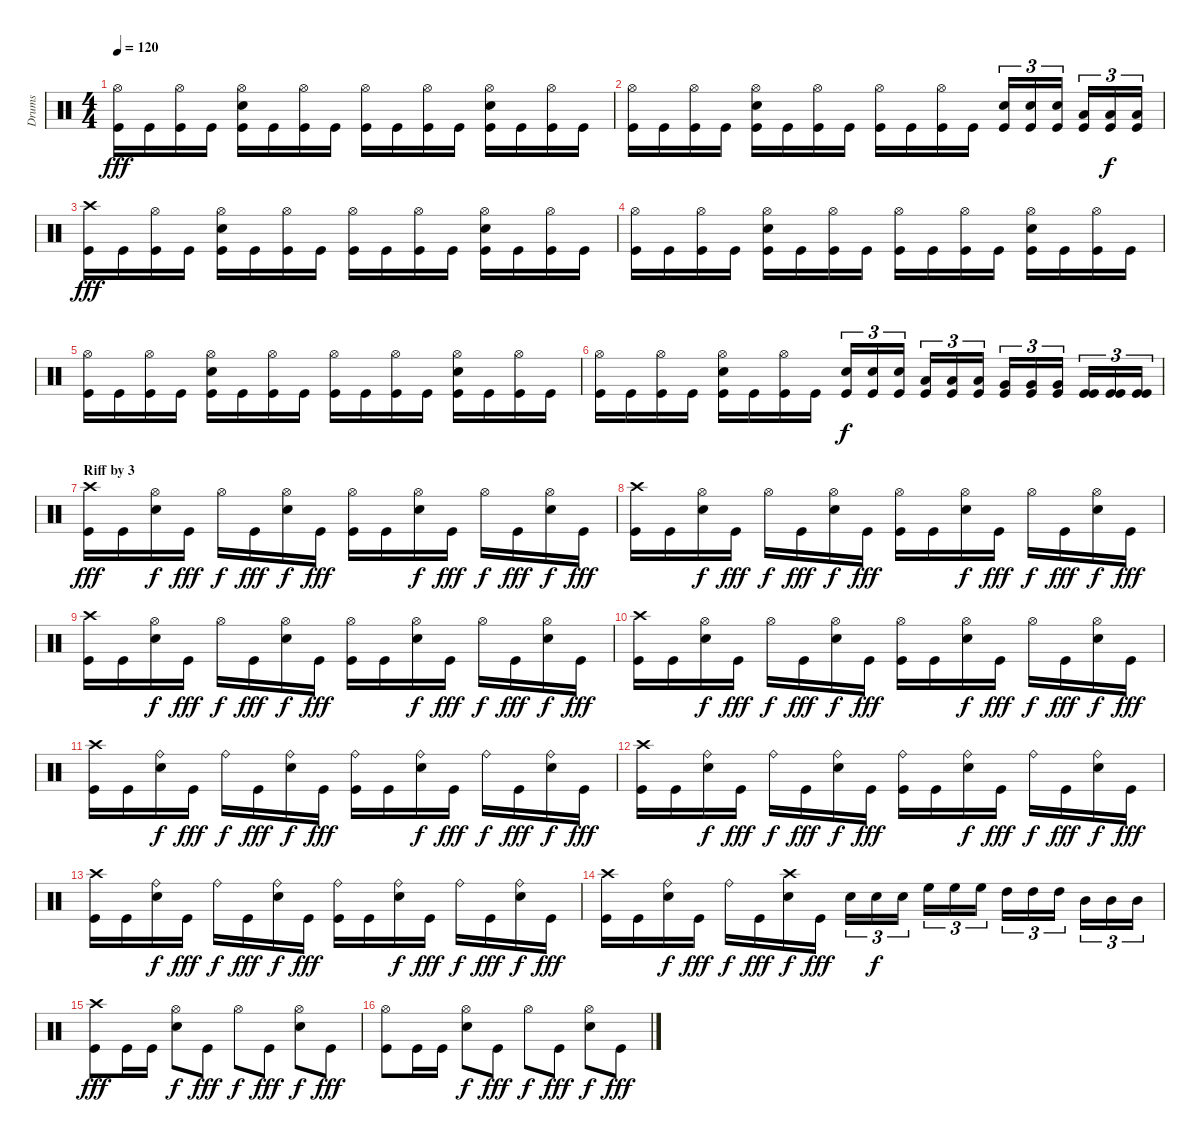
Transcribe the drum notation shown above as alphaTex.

\track ("Drums" "Drums") {instrument percussion}
\staff {score}
\articulation defaults
\ts (4 4)
\tempo 120
\clef neutral
\ks c
("Hi-Hat (open)" "Kick (hit)").16{dy fff} "Kick (hit)".16 ("Hi-Hat (open)" "Kick (hit)").16 "Kick (hit)".16 ("Hi-Hat (open)" "Electric Snare (hit)" "Kick (hit)").16 "Kick (hit)".16 ("Hi-Hat (open)" "Kick (hit)").16 "Kick (hit)".16 ("Hi-Hat (open)" "Kick (hit)").16 "Kick (hit)".16 ("Hi-Hat (open)" "Kick (hit)").16 "Kick (hit)".16 ("Hi-Hat (open)" "Electric Snare (hit)" "Kick (hit)").16 "Kick (hit)".16 ("Hi-Hat (open)" "Kick (hit)").16 "Kick (hit)".16 |
("Hi-Hat (open)" "Kick (hit)").16 "Kick (hit)".16 ("Hi-Hat (open)" "Kick (hit)").16 "Kick (hit)".16 ("Hi-Hat (open)" "Electric Snare (hit)" "Kick (hit)").16 "Kick (hit)".16 ("Hi-Hat (open)" "Kick (hit)").16 "Kick (hit)".16 ("Hi-Hat (open)" "Kick (hit)").16 "Kick (hit)".16 ("Hi-Hat (open)" "Kick (hit)").16 "Kick (hit)".16 ("Electric Snare (hit)" "Kick (hit)").16{tu (3 2)} ("Electric Snare (hit)" "Kick (hit)").16{tu (3 2)} ("Electric Snare (hit)" "Kick (hit)").16{tu (3 2)} ("Low Tom (hit)" "Kick (hit)").16{tu (3 2)} ("Low Tom (hit)" "Kick (hit)").16{tu (3 2) dy f} ("Low Tom (hit)" "Kick (hit)").16{tu (3 2)} |
("Crash high (hit)" "Kick (hit)").16{dy fff} "Kick (hit)".16 ("Hi-Hat (open)" "Kick (hit)").16 "Kick (hit)".16 ("Hi-Hat (open)" "Electric Snare (hit)" "Kick (hit)").16 "Kick (hit)".16 ("Hi-Hat (open)" "Kick (hit)").16 "Kick (hit)".16 ("Hi-Hat (open)" "Kick (hit)").16 "Kick (hit)".16 ("Hi-Hat (open)" "Kick (hit)").16 "Kick (hit)".16 ("Hi-Hat (open)" "Electric Snare (hit)" "Kick (hit)").16 "Kick (hit)".16 ("Hi-Hat (open)" "Kick (hit)").16 "Kick (hit)".16 |
("Hi-Hat (open)" "Kick (hit)").16 "Kick (hit)".16 ("Hi-Hat (open)" "Kick (hit)").16 "Kick (hit)".16 ("Hi-Hat (open)" "Electric Snare (hit)" "Kick (hit)").16 "Kick (hit)".16 ("Hi-Hat (open)" "Kick (hit)").16 "Kick (hit)".16 ("Hi-Hat (open)" "Kick (hit)").16 "Kick (hit)".16 ("Hi-Hat (open)" "Kick (hit)").16 "Kick (hit)".16 ("Hi-Hat (open)" "Electric Snare (hit)" "Kick (hit)").16 "Kick (hit)".16 ("Hi-Hat (open)" "Kick (hit)").16 "Kick (hit)".16 |
("Hi-Hat (open)" "Kick (hit)").16 "Kick (hit)".16 ("Hi-Hat (open)" "Kick (hit)").16 "Kick (hit)".16 ("Hi-Hat (open)" "Electric Snare (hit)" "Kick (hit)").16 "Kick (hit)".16 ("Hi-Hat (open)" "Kick (hit)").16 "Kick (hit)".16 ("Hi-Hat (open)" "Kick (hit)").16 "Kick (hit)".16 ("Hi-Hat (open)" "Kick (hit)").16 "Kick (hit)".16 ("Hi-Hat (open)" "Electric Snare (hit)" "Kick (hit)").16 "Kick (hit)".16 ("Hi-Hat (open)" "Kick (hit)").16 "Kick (hit)".16 |
("Hi-Hat (open)" "Kick (hit)").16 "Kick (hit)".16 ("Hi-Hat (open)" "Kick (hit)").16 "Kick (hit)".16 ("Hi-Hat (open)" "Electric Snare (hit)" "Kick (hit)").16 "Kick (hit)".16 ("Hi-Hat (open)" "Kick (hit)").16 "Kick (hit)".16 ("Electric Snare (hit)" "Kick (hit)").16{tu (3 2) dy f} ("Electric Snare (hit)" "Kick (hit)").16{tu (3 2)} ("Electric Snare (hit)" "Kick (hit)").16{tu (3 2)} ("Low Tom (hit)" "Kick (hit)").16{tu (3 2)} ("Low Tom (hit)" "Kick (hit)").16{tu (3 2)} ("Low Tom (hit)" "Kick (hit)").16{tu (3 2)} ("Very Low Tom (hit)" "Kick (hit)").16{tu (3 2)} ("Very Low Tom (hit)" "Kick (hit)").16{tu (3 2)} ("Very Low Tom (hit)" "Kick (hit)").16{tu (3 2)} ("Kick (hit)" "Kick (hit)").16{tu (3 2)} ("Kick (hit)" "Kick (hit)").16{tu (3 2)} ("Kick (hit)" "Kick (hit)").16{tu (3 2)} |
\section ("" "Riff by 3")
("Crash high (hit)" "Kick (hit)").16{dy fff} "Kick (hit)".16 ("Hi-Hat (open)" "Electric Snare (hit)").16{dy f} "Kick (hit)".16{dy fff} "Hi-Hat (open)".16{dy f} "Kick (hit)".16{dy fff} ("Hi-Hat (open)" "Electric Snare (hit)").16{dy f} "Kick (hit)".16{dy fff} ("Hi-Hat (open)" "Kick (hit)").16 "Kick (hit)".16 ("Hi-Hat (open)" "Electric Snare (hit)").16{dy f} "Kick (hit)".16{dy fff} "Hi-Hat (open)".16{dy f} "Kick (hit)".16{dy fff} ("Hi-Hat (open)" "Electric Snare (hit)").16{dy f} "Kick (hit)".16{dy fff} |
("Crash high (hit)" "Kick (hit)").16 "Kick (hit)".16 ("Hi-Hat (open)" "Electric Snare (hit)").16{dy f} "Kick (hit)".16{dy fff} "Hi-Hat (open)".16{dy f} "Kick (hit)".16{dy fff} ("Hi-Hat (open)" "Electric Snare (hit)").16{dy f} "Kick (hit)".16{dy fff} ("Hi-Hat (open)" "Kick (hit)").16 "Kick (hit)".16 ("Hi-Hat (open)" "Electric Snare (hit)").16{dy f} "Kick (hit)".16{dy fff} "Hi-Hat (open)".16{dy f} "Kick (hit)".16{dy fff} ("Hi-Hat (open)" "Electric Snare (hit)").16{dy f} "Kick (hit)".16{dy fff} |
("Crash high (hit)" "Kick (hit)").16 "Kick (hit)".16 ("Hi-Hat (open)" "Electric Snare (hit)").16{dy f} "Kick (hit)".16{dy fff} "Hi-Hat (open)".16{dy f} "Kick (hit)".16{dy fff} ("Hi-Hat (open)" "Electric Snare (hit)").16{dy f} "Kick (hit)".16{dy fff} ("Hi-Hat (open)" "Kick (hit)").16 "Kick (hit)".16 ("Hi-Hat (open)" "Electric Snare (hit)").16{dy f} "Kick (hit)".16{dy fff} "Hi-Hat (open)".16{dy f} "Kick (hit)".16{dy fff} ("Hi-Hat (open)" "Electric Snare (hit)").16{dy f} "Kick (hit)".16{dy fff} |
("Crash high (hit)" "Kick (hit)").16 "Kick (hit)".16 ("Hi-Hat (open)" "Electric Snare (hit)").16{dy f} "Kick (hit)".16{dy fff} "Hi-Hat (open)".16{dy f} "Kick (hit)".16{dy fff} ("Hi-Hat (open)" "Electric Snare (hit)").16{dy f} "Kick (hit)".16{dy fff} ("Hi-Hat (open)" "Kick (hit)").16 "Kick (hit)".16 ("Hi-Hat (open)" "Electric Snare (hit)").16{dy f} "Kick (hit)".16{dy fff} "Hi-Hat (open)".16{dy f} "Kick (hit)".16{dy fff} ("Hi-Hat (open)" "Electric Snare (hit)").16{dy f} "Kick (hit)".16{dy fff} |
("Crash high (hit)" "Kick (hit)").16 "Kick (hit)".16 ("Ride (bell)" "Electric Snare (hit)").16{dy f} "Kick (hit)".16{dy fff} "Ride (bell)".16{dy f} "Kick (hit)".16{dy fff} ("Ride (bell)" "Electric Snare (hit)").16{dy f} "Kick (hit)".16{dy fff} ("Ride (bell)" "Kick (hit)").16 "Kick (hit)".16 ("Ride (bell)" "Electric Snare (hit)").16{dy f} "Kick (hit)".16{dy fff} "Ride (bell)".16{dy f} "Kick (hit)".16{dy fff} ("Ride (bell)" "Electric Snare (hit)").16{dy f} "Kick (hit)".16{dy fff} |
("Crash high (hit)" "Kick (hit)").16 "Kick (hit)".16 ("Ride (bell)" "Electric Snare (hit)").16{dy f} "Kick (hit)".16{dy fff} "Ride (bell)".16{dy f} "Kick (hit)".16{dy fff} ("Ride (bell)" "Electric Snare (hit)").16{dy f} "Kick (hit)".16{dy fff} ("Ride (bell)" "Kick (hit)").16 "Kick (hit)".16 ("Ride (bell)" "Electric Snare (hit)").16{dy f} "Kick (hit)".16{dy fff} "Ride (bell)".16{dy f} "Kick (hit)".16{dy fff} ("Ride (bell)" "Electric Snare (hit)").16{dy f} "Kick (hit)".16{dy fff} |
("Crash high (hit)" "Kick (hit)").16 "Kick (hit)".16 ("Ride (bell)" "Electric Snare (hit)").16{dy f} "Kick (hit)".16{dy fff} "Ride (bell)".16{dy f} "Kick (hit)".16{dy fff} ("Ride (bell)" "Electric Snare (hit)").16{dy f} "Kick (hit)".16{dy fff} ("Ride (bell)" "Kick (hit)").16 "Kick (hit)".16 ("Ride (bell)" "Electric Snare (hit)").16{dy f} "Kick (hit)".16{dy fff} "Ride (bell)".16{dy f} "Kick (hit)".16{dy fff} ("Ride (bell)" "Electric Snare (hit)").16{dy f} "Kick (hit)".16{dy fff} |
("Crash high (hit)" "Kick (hit)").16 "Kick (hit)".16 ("Ride (bell)" "Electric Snare (hit)").16{dy f} "Kick (hit)".16{dy fff} "Ride (bell)".16{dy f} "Kick (hit)".16{dy fff} ("Crash high (hit)" "Electric Snare (hit)").16{dy f} "Kick (hit)".16{dy fff} "Electric Snare (hit)".16{tu (3 2)} "Electric Snare (hit)".16{tu (3 2) dy f} "Electric Snare (hit)".16{tu (3 2)} "High Floor Tom (hit)".16{tu (3 2)} "High Floor Tom (hit)".16{tu (3 2)} "High Floor Tom (hit)".16{tu (3 2)} "High Tom (hit)".16{tu (3 2)} "High Tom (hit)".16{tu (3 2)} "High Tom (hit)".16{tu (3 2)} "Mid Tom (hit)".16{tu (3 2)} "Mid Tom (hit)".16{tu (3 2)} "Mid Tom (hit)".16{tu (3 2)} |
("Crash high (hit)" "Kick (hit)").8{dy fff} "Kick (hit)".16 "Kick (hit)".16 ("Hi-Hat (open)" "Electric Snare (hit)").8{dy f} "Kick (hit)".8{dy fff} "Hi-Hat (open)".8{dy f} "Kick (hit)".8{dy fff} ("Hi-Hat (open)" "Electric Snare (hit)").8{dy f} "Kick (hit)".8{dy fff} |
("Hi-Hat (open)" "Kick (hit)").8 "Kick (hit)".16 "Kick (hit)".16 ("Hi-Hat (open)" "Electric Snare (hit)").8{dy f} "Kick (hit)".8{dy fff} "Hi-Hat (open)".8{dy f} "Kick (hit)".8{dy fff} ("Hi-Hat (open)" "Electric Snare (hit)").8{dy f} "Kick (hit)".8{dy fff}
